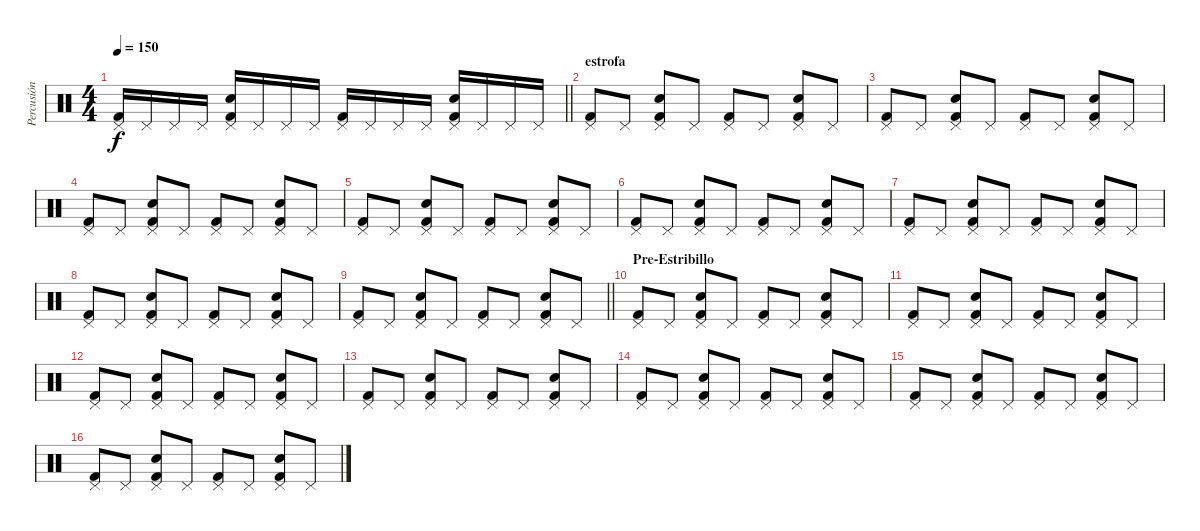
\track ("Percusión" "Percusión") {instrument percussion}
\staff {score}
\articulation defaults
\ts (4 4)
\tempo 150
\clef neutral
\barLineRight lightlight
\ks c
("Pedal Hi-Hat (hit)" "Kick (hit) 2").16{dy f} "Pedal Hi-Hat (hit)".16 "Pedal Hi-Hat (hit)".16 "Pedal Hi-Hat (hit)".16 ("Pedal Hi-Hat (hit)" "Electric Snare (hit)" "Kick (hit) 2").16 "Pedal Hi-Hat (hit)".16 "Pedal Hi-Hat (hit)".16 "Pedal Hi-Hat (hit)".16 ("Pedal Hi-Hat (hit)" "Kick (hit) 2").16 "Pedal Hi-Hat (hit)".16 "Pedal Hi-Hat (hit)".16 "Pedal Hi-Hat (hit)".16 ("Pedal Hi-Hat (hit)" "Electric Snare (hit)" "Kick (hit) 2").16 "Pedal Hi-Hat (hit)".16 "Pedal Hi-Hat (hit)".16 "Pedal Hi-Hat (hit)".16 |
\section ("" "estrofa")
("Pedal Hi-Hat (hit)" "Kick (hit) 2").8 "Pedal Hi-Hat (hit)".8 ("Electric Snare (hit)" "Pedal Hi-Hat (hit)" "Kick (hit) 2").8 "Pedal Hi-Hat (hit)".8 ("Pedal Hi-Hat (hit)" "Kick (hit) 2").8 "Pedal Hi-Hat (hit)".8 ("Electric Snare (hit)" "Pedal Hi-Hat (hit)" "Kick (hit) 2").8 "Pedal Hi-Hat (hit)".8 |
("Pedal Hi-Hat (hit)" "Kick (hit) 2").8 "Pedal Hi-Hat (hit)".8 ("Electric Snare (hit)" "Pedal Hi-Hat (hit)" "Kick (hit) 2").8 "Pedal Hi-Hat (hit)".8 ("Pedal Hi-Hat (hit)" "Kick (hit) 2").8 "Pedal Hi-Hat (hit)".8 ("Electric Snare (hit)" "Pedal Hi-Hat (hit)" "Kick (hit) 2").8 "Pedal Hi-Hat (hit)".8 |
("Pedal Hi-Hat (hit)" "Kick (hit) 2").8 "Pedal Hi-Hat (hit)".8 ("Electric Snare (hit)" "Pedal Hi-Hat (hit)" "Kick (hit) 2").8 "Pedal Hi-Hat (hit)".8 ("Pedal Hi-Hat (hit)" "Kick (hit) 2").8 "Pedal Hi-Hat (hit)".8 ("Electric Snare (hit)" "Pedal Hi-Hat (hit)" "Kick (hit) 2").8 "Pedal Hi-Hat (hit)".8 |
("Pedal Hi-Hat (hit)" "Kick (hit) 2").8 "Pedal Hi-Hat (hit)".8 ("Electric Snare (hit)" "Pedal Hi-Hat (hit)" "Kick (hit) 2").8 "Pedal Hi-Hat (hit)".8 ("Pedal Hi-Hat (hit)" "Kick (hit) 2").8 "Pedal Hi-Hat (hit)".8 ("Electric Snare (hit)" "Pedal Hi-Hat (hit)" "Kick (hit) 2").8 "Pedal Hi-Hat (hit)".8 |
("Pedal Hi-Hat (hit)" "Kick (hit) 2").8 "Pedal Hi-Hat (hit)".8 ("Electric Snare (hit)" "Pedal Hi-Hat (hit)" "Kick (hit) 2").8 "Pedal Hi-Hat (hit)".8 ("Pedal Hi-Hat (hit)" "Kick (hit) 2").8 "Pedal Hi-Hat (hit)".8 ("Electric Snare (hit)" "Pedal Hi-Hat (hit)" "Kick (hit) 2").8 "Pedal Hi-Hat (hit)".8 |
("Pedal Hi-Hat (hit)" "Kick (hit) 2").8 "Pedal Hi-Hat (hit)".8 ("Electric Snare (hit)" "Pedal Hi-Hat (hit)" "Kick (hit) 2").8 "Pedal Hi-Hat (hit)".8 ("Pedal Hi-Hat (hit)" "Kick (hit) 2").8 "Pedal Hi-Hat (hit)".8 ("Electric Snare (hit)" "Pedal Hi-Hat (hit)" "Kick (hit) 2").8 "Pedal Hi-Hat (hit)".8 |
("Pedal Hi-Hat (hit)" "Kick (hit) 2").8 "Pedal Hi-Hat (hit)".8 ("Electric Snare (hit)" "Pedal Hi-Hat (hit)" "Kick (hit) 2").8 "Pedal Hi-Hat (hit)".8 ("Pedal Hi-Hat (hit)" "Kick (hit) 2").8 "Pedal Hi-Hat (hit)".8 ("Electric Snare (hit)" "Pedal Hi-Hat (hit)" "Kick (hit) 2").8 "Pedal Hi-Hat (hit)".8 |
\barLineRight lightlight
("Pedal Hi-Hat (hit)" "Kick (hit) 2").8 "Pedal Hi-Hat (hit)".8 ("Electric Snare (hit)" "Pedal Hi-Hat (hit)" "Kick (hit) 2").8 "Pedal Hi-Hat (hit)".8 ("Pedal Hi-Hat (hit)" "Kick (hit) 2").8 "Pedal Hi-Hat (hit)".8 ("Electric Snare (hit)" "Pedal Hi-Hat (hit)" "Kick (hit) 2").8 "Pedal Hi-Hat (hit)".8 |
\section ("" "Pre-Estribillo")
("Pedal Hi-Hat (hit)" "Kick (hit) 2").8 "Pedal Hi-Hat (hit)".8 ("Electric Snare (hit)" "Pedal Hi-Hat (hit)" "Kick (hit) 2").8 "Pedal Hi-Hat (hit)".8 ("Pedal Hi-Hat (hit)" "Kick (hit) 2").8 "Pedal Hi-Hat (hit)".8 ("Electric Snare (hit)" "Pedal Hi-Hat (hit)" "Kick (hit) 2").8 "Pedal Hi-Hat (hit)".8 |
("Pedal Hi-Hat (hit)" "Kick (hit) 2").8 "Pedal Hi-Hat (hit)".8 ("Electric Snare (hit)" "Pedal Hi-Hat (hit)" "Kick (hit) 2").8 "Pedal Hi-Hat (hit)".8 ("Pedal Hi-Hat (hit)" "Kick (hit) 2").8 "Pedal Hi-Hat (hit)".8 ("Electric Snare (hit)" "Pedal Hi-Hat (hit)" "Kick (hit) 2").8 "Pedal Hi-Hat (hit)".8 |
("Pedal Hi-Hat (hit)" "Kick (hit) 2").8 "Pedal Hi-Hat (hit)".8 ("Electric Snare (hit)" "Pedal Hi-Hat (hit)" "Kick (hit) 2").8 "Pedal Hi-Hat (hit)".8 ("Pedal Hi-Hat (hit)" "Kick (hit) 2").8 "Pedal Hi-Hat (hit)".8 ("Electric Snare (hit)" "Pedal Hi-Hat (hit)" "Kick (hit) 2").8 "Pedal Hi-Hat (hit)".8 |
("Pedal Hi-Hat (hit)" "Kick (hit) 2").8 "Pedal Hi-Hat (hit)".8 ("Electric Snare (hit)" "Pedal Hi-Hat (hit)" "Kick (hit) 2").8 "Pedal Hi-Hat (hit)".8 ("Pedal Hi-Hat (hit)" "Kick (hit) 2").8 "Pedal Hi-Hat (hit)".8 ("Electric Snare (hit)" "Pedal Hi-Hat (hit)" "Kick (hit) 2").8 "Pedal Hi-Hat (hit)".8 |
("Pedal Hi-Hat (hit)" "Kick (hit) 2").8 "Pedal Hi-Hat (hit)".8 ("Electric Snare (hit)" "Pedal Hi-Hat (hit)" "Kick (hit) 2").8 "Pedal Hi-Hat (hit)".8 ("Pedal Hi-Hat (hit)" "Kick (hit) 2").8 "Pedal Hi-Hat (hit)".8 ("Electric Snare (hit)" "Pedal Hi-Hat (hit)" "Kick (hit) 2").8 "Pedal Hi-Hat (hit)".8 |
("Pedal Hi-Hat (hit)" "Kick (hit) 2").8 "Pedal Hi-Hat (hit)".8 ("Electric Snare (hit)" "Pedal Hi-Hat (hit)" "Kick (hit) 2").8 "Pedal Hi-Hat (hit)".8 ("Pedal Hi-Hat (hit)" "Kick (hit) 2").8 "Pedal Hi-Hat (hit)".8 ("Electric Snare (hit)" "Pedal Hi-Hat (hit)" "Kick (hit) 2").8 "Pedal Hi-Hat (hit)".8 |
("Pedal Hi-Hat (hit)" "Kick (hit) 2").8 "Pedal Hi-Hat (hit)".8 ("Electric Snare (hit)" "Pedal Hi-Hat (hit)" "Kick (hit) 2").8 "Pedal Hi-Hat (hit)".8 ("Pedal Hi-Hat (hit)" "Kick (hit) 2").8 "Pedal Hi-Hat (hit)".8 ("Electric Snare (hit)" "Pedal Hi-Hat (hit)" "Kick (hit) 2").8 "Pedal Hi-Hat (hit)".8
